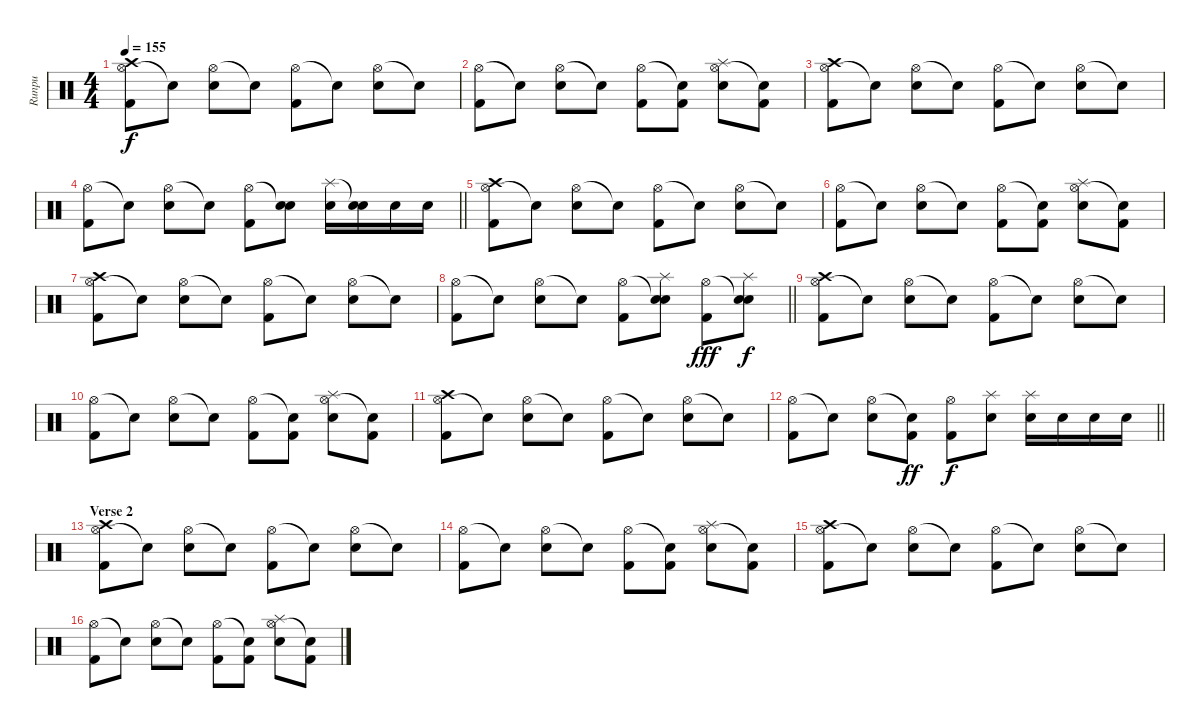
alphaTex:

\track ("Runpu" "Runpu") {instrument percussion}
\staff {score}
\articulation defaults
\ts (4 4)
\tempo 155
\clef neutral
\ks c
("Hi-Hat (open)" "Crash high (hit)" "Kick (hit) 2").8{dy f} "Snare (hit)"{t}.8 ("Hi-Hat (open)" "Snare (hit) 2").8 "Snare (hit)"{t}.8 ("Hi-Hat (open)" "Kick (hit) 2").8 "Snare (hit)"{t}.8 ("Hi-Hat (open)" "Snare (hit) 2").8 "Snare (hit)"{t}.8 |
("Hi-Hat (open)" "Kick (hit) 2").8 "Snare (hit)"{t}.8 ("Hi-Hat (open)" "Snare (hit) 2").8 "Snare (hit)"{t}.8 ("Hi-Hat (open)" "Kick (hit) 2").8 ("Snare (hit)"{t} "Kick (hit) 2").8 ("Hi-Hat (open)" "Splash (hit)" "Snare (hit) 2").8 ("Snare (hit)"{t} "Kick (hit) 2").8 |
("Hi-Hat (open)" "Crash high (hit)" "Kick (hit) 2").8 "Snare (hit)"{t}.8 ("Hi-Hat (open)" "Snare (hit) 2").8 "Snare (hit)"{t}.8 ("Hi-Hat (open)" "Kick (hit) 2").8 "Snare (hit)"{t}.8 ("Hi-Hat (open)" "Snare (hit) 2").8 "Snare (hit)"{t}.8 |
\barLineRight lightlight
("Hi-Hat (open)" "Kick (hit) 2").8 "Snare (hit)"{t}.8 ("Hi-Hat (open)" "Snare (hit) 2").8 "Snare (hit)"{t}.8 ("Hi-Hat (open)" "Kick (hit) 2").8 ("Snare (hit)"{t} "Snare (hit) 2").8 ("Splash (hit)" "Snare (hit) 2").16 ("Snare (hit)"{t} "Snare (hit) 2").16 "Snare (hit) 2".16 "Snare (hit) 2".16 |
("Hi-Hat (open)" "Crash high (hit)" "Kick (hit) 2").8 "Snare (hit)"{t}.8 ("Hi-Hat (open)" "Snare (hit) 2").8 "Snare (hit)"{t}.8 ("Hi-Hat (open)" "Kick (hit) 2").8 "Snare (hit)"{t}.8 ("Hi-Hat (open)" "Snare (hit) 2").8 "Snare (hit)"{t}.8 |
("Hi-Hat (open)" "Kick (hit) 2").8 "Snare (hit)"{t}.8 ("Hi-Hat (open)" "Snare (hit) 2").8 "Snare (hit)"{t}.8 ("Hi-Hat (open)" "Kick (hit) 2").8 ("Snare (hit)"{t} "Kick (hit) 2").8 ("Hi-Hat (open)" "Splash (hit)" "Snare (hit) 2").8 ("Snare (hit)"{t} "Kick (hit) 2").8 |
("Hi-Hat (open)" "Crash high (hit)" "Kick (hit) 2").8 "Snare (hit)"{t}.8 ("Hi-Hat (open)" "Snare (hit) 2").8 "Snare (hit)"{t}.8 ("Hi-Hat (open)" "Kick (hit) 2").8 "Snare (hit)"{t}.8 ("Hi-Hat (open)" "Snare (hit) 2").8 "Snare (hit)"{t}.8 |
\barLineRight lightlight
("Hi-Hat (open)" "Kick (hit) 2").8 "Snare (hit)"{t}.8 ("Hi-Hat (open)" "Snare (hit) 2").8 "Snare (hit)"{t}.8 ("Hi-Hat (open)" "Kick (hit) 2").8 ("Snare (hit)"{t} "Splash (hit)" "Snare (hit) 2").8 ("Hi-Hat (open)" "Kick (hit) 2").8{dy fff} ("Snare (hit)"{t} "Splash (hit)" "Snare (hit) 2").8{dy f} |
("Hi-Hat (open)" "Crash high (hit)" "Kick (hit) 2").8 "Snare (hit)"{t}.8 ("Hi-Hat (open)" "Snare (hit) 2").8 "Snare (hit)"{t}.8 ("Hi-Hat (open)" "Kick (hit) 2").8 "Snare (hit)"{t}.8 ("Hi-Hat (open)" "Snare (hit) 2").8 "Snare (hit)"{t}.8 |
("Hi-Hat (open)" "Kick (hit) 2").8 "Snare (hit)"{t}.8 ("Hi-Hat (open)" "Snare (hit) 2").8 "Snare (hit)"{t}.8 ("Hi-Hat (open)" "Kick (hit) 2").8 ("Snare (hit)"{t} "Kick (hit) 2").8 ("Hi-Hat (open)" "Splash (hit)" "Snare (hit) 2").8 ("Snare (hit)"{t} "Kick (hit) 2").8 |
("Hi-Hat (open)" "Crash high (hit)" "Kick (hit) 2").8 "Snare (hit)"{t}.8 ("Hi-Hat (open)" "Snare (hit) 2").8 "Snare (hit)"{t}.8 ("Hi-Hat (open)" "Kick (hit) 2").8 "Snare (hit)"{t}.8 ("Hi-Hat (open)" "Snare (hit) 2").8 "Snare (hit)"{t}.8 |
\barLineRight lightlight
("Hi-Hat (open)" "Kick (hit) 2").8 "Snare (hit)"{t}.8 ("Hi-Hat (open)" "Snare (hit) 2").8 ("Snare (hit)"{t} "Kick (hit) 2").8{dy ff} ("Hi-Hat (open)" "Kick (hit) 2").8{dy f} ("Splash (hit)" "Snare (hit) 2").8 ("Splash (hit)" "Snare (hit) 2").16 "Snare (hit) 2".16 "Snare (hit) 2".16 "Snare (hit) 2".16 |
\section ("" "Verse 2")
("Hi-Hat (open)" "Crash high (hit)" "Kick (hit) 2").8 "Snare (hit)"{t}.8 ("Hi-Hat (open)" "Snare (hit) 2").8 "Snare (hit)"{t}.8 ("Hi-Hat (open)" "Kick (hit) 2").8 "Snare (hit)"{t}.8 ("Hi-Hat (open)" "Snare (hit) 2").8 "Snare (hit)"{t}.8 |
("Hi-Hat (open)" "Kick (hit) 2").8 "Snare (hit)"{t}.8 ("Hi-Hat (open)" "Snare (hit) 2").8 "Snare (hit)"{t}.8 ("Hi-Hat (open)" "Kick (hit) 2").8 ("Snare (hit)"{t} "Kick (hit) 2").8 ("Hi-Hat (open)" "Splash (hit)" "Snare (hit) 2").8 ("Snare (hit)"{t} "Kick (hit) 2").8 |
("Hi-Hat (open)" "Crash high (hit)" "Kick (hit) 2").8 "Snare (hit)"{t}.8 ("Hi-Hat (open)" "Snare (hit) 2").8 "Snare (hit)"{t}.8 ("Hi-Hat (open)" "Kick (hit) 2").8 "Snare (hit)"{t}.8 ("Hi-Hat (open)" "Snare (hit) 2").8 "Snare (hit)"{t}.8 |
("Hi-Hat (open)" "Kick (hit) 2").8 "Snare (hit)"{t}.8 ("Hi-Hat (open)" "Snare (hit) 2").8 "Snare (hit)"{t}.8 ("Hi-Hat (open)" "Kick (hit) 2").8 ("Snare (hit)"{t} "Kick (hit) 2").8 ("Hi-Hat (open)" "Splash (hit)" "Snare (hit) 2").8 ("Snare (hit)"{t} "Kick (hit) 2").8
